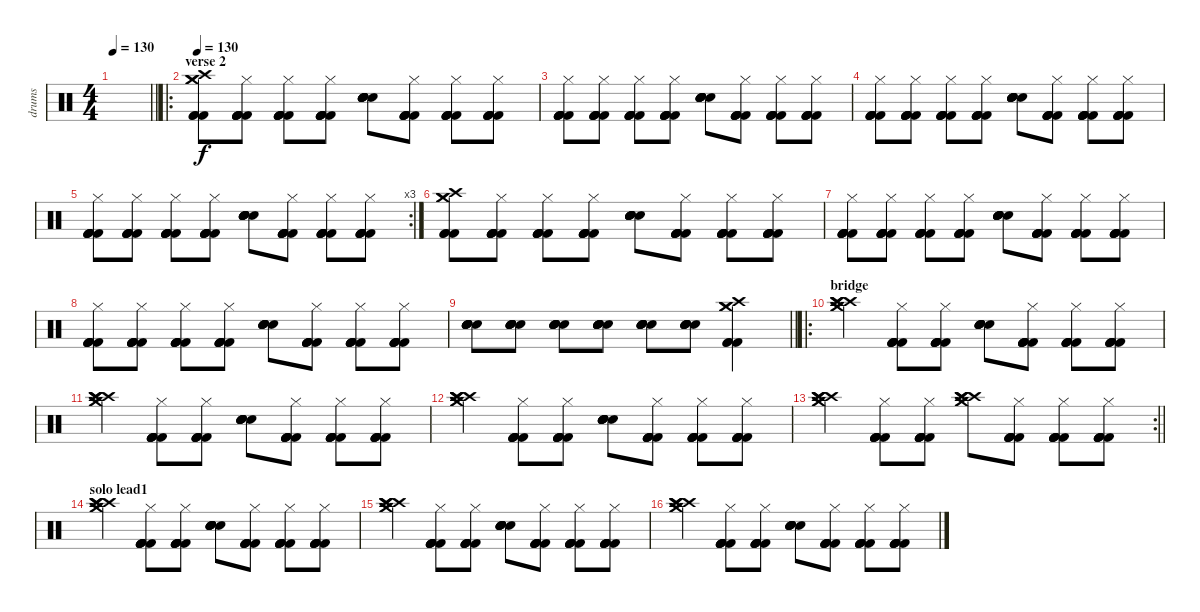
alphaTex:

\track ("drums" "drums") {instrument percussion}
\staff {score}
\articulation defaults
\ts (4 4)
\tempo 130
\clef neutral
\barLineRight lightlight
\ks c
|
\ro
\section ("" "verse 2")
\tempo 130
("Crash medium (hit)" "Crash medium (hit)" "Crash high (hit)" "Kick (hit) 2" "Kick (hit) 2" "Kick (hit) 2").8 ("Kick (hit) 2" "Kick (hit) 2" "Kick (hit) 2" "Hi-Hat (closed)" "Kick (hit) 2" "Kick (hit) 2").8 ("Kick (hit) 2" "Kick (hit) 2" "Kick (hit) 2" "Hi-Hat (closed)" "Kick (hit) 2" "Kick (hit) 2").8 ("Kick (hit) 2" "Kick (hit) 2" "Kick (hit) 2" "Hi-Hat (closed)" "Kick (hit) 2" "Kick (hit) 2").8 ("Snare (hit) 2" "Snare (hit) 2" "Snare (hit) 2" "Electric Snare (hit)" "Electric Snare (hit)" "Electric Snare (hit)").8 ("Kick (hit) 2" "Kick (hit) 2" "Kick (hit) 2" "Hi-Hat (closed)" "Kick (hit) 2" "Kick (hit) 2").8 ("Kick (hit) 2" "Kick (hit) 2" "Kick (hit) 2" "Hi-Hat (closed)" "Kick (hit) 2" "Kick (hit) 2").8 ("Kick (hit) 2" "Kick (hit) 2" "Kick (hit) 2" "Hi-Hat (closed)" "Kick (hit) 2" "Kick (hit) 2").8 |
("Kick (hit) 2" "Kick (hit) 2" "Kick (hit) 2" "Hi-Hat (closed)" "Kick (hit) 2" "Kick (hit) 2").8 ("Kick (hit) 2" "Kick (hit) 2" "Kick (hit) 2" "Hi-Hat (closed)" "Kick (hit) 2" "Kick (hit) 2").8 ("Kick (hit) 2" "Kick (hit) 2" "Kick (hit) 2" "Hi-Hat (closed)" "Kick (hit) 2" "Kick (hit) 2").8 ("Kick (hit) 2" "Kick (hit) 2" "Kick (hit) 2" "Hi-Hat (closed)" "Kick (hit) 2" "Kick (hit) 2").8 ("Snare (hit) 2" "Snare (hit) 2" "Snare (hit) 2" "Electric Snare (hit)" "Electric Snare (hit)" "Electric Snare (hit)").8 ("Kick (hit) 2" "Kick (hit) 2" "Kick (hit) 2" "Hi-Hat (closed)" "Kick (hit) 2" "Kick (hit) 2").8 ("Kick (hit) 2" "Kick (hit) 2" "Kick (hit) 2" "Hi-Hat (closed)" "Kick (hit) 2" "Kick (hit) 2").8 ("Kick (hit) 2" "Kick (hit) 2" "Kick (hit) 2" "Hi-Hat (closed)" "Kick (hit) 2" "Kick (hit) 2").8 |
("Kick (hit) 2" "Kick (hit) 2" "Kick (hit) 2" "Hi-Hat (closed)" "Kick (hit) 2" "Kick (hit) 2").8 ("Kick (hit) 2" "Kick (hit) 2" "Kick (hit) 2" "Hi-Hat (closed)" "Kick (hit) 2" "Kick (hit) 2").8 ("Kick (hit) 2" "Kick (hit) 2" "Kick (hit) 2" "Hi-Hat (closed)" "Kick (hit) 2" "Kick (hit) 2").8 ("Kick (hit) 2" "Kick (hit) 2" "Kick (hit) 2" "Hi-Hat (closed)" "Kick (hit) 2" "Kick (hit) 2").8 ("Snare (hit) 2" "Snare (hit) 2" "Snare (hit) 2" "Electric Snare (hit)" "Electric Snare (hit)" "Electric Snare (hit)").8 ("Kick (hit) 2" "Kick (hit) 2" "Kick (hit) 2" "Hi-Hat (closed)" "Kick (hit) 2" "Kick (hit) 2").8 ("Kick (hit) 2" "Kick (hit) 2" "Kick (hit) 2" "Hi-Hat (closed)" "Kick (hit) 2" "Kick (hit) 2").8 ("Kick (hit) 2" "Kick (hit) 2" "Kick (hit) 2" "Hi-Hat (closed)" "Kick (hit) 2" "Kick (hit) 2").8 |
\rc 3
("Kick (hit) 2" "Kick (hit) 2" "Kick (hit) 2" "Hi-Hat (closed)" "Kick (hit) 2" "Kick (hit) 2").8 ("Kick (hit) 2" "Kick (hit) 2" "Kick (hit) 2" "Hi-Hat (closed)" "Kick (hit) 2" "Kick (hit) 2").8 ("Kick (hit) 2" "Kick (hit) 2" "Kick (hit) 2" "Hi-Hat (closed)" "Kick (hit) 2" "Kick (hit) 2").8 ("Kick (hit) 2" "Kick (hit) 2" "Kick (hit) 2" "Hi-Hat (closed)" "Kick (hit) 2" "Kick (hit) 2").8 ("Snare (hit) 2" "Snare (hit) 2" "Snare (hit) 2" "Electric Snare (hit)" "Electric Snare (hit)" "Electric Snare (hit)").8 ("Kick (hit) 2" "Kick (hit) 2" "Kick (hit) 2" "Hi-Hat (closed)" "Kick (hit) 2" "Kick (hit) 2").8 ("Kick (hit) 2" "Kick (hit) 2" "Kick (hit) 2" "Hi-Hat (closed)" "Kick (hit) 2" "Kick (hit) 2").8 ("Kick (hit) 2" "Kick (hit) 2" "Kick (hit) 2" "Hi-Hat (closed)" "Kick (hit) 2" "Kick (hit) 2").8 |
("Crash medium (hit)" "Crash medium (hit)" "Crash high (hit)" "Kick (hit) 2" "Kick (hit) 2" "Kick (hit) 2").8 ("Kick (hit) 2" "Kick (hit) 2" "Kick (hit) 2" "Hi-Hat (closed)" "Kick (hit) 2" "Kick (hit) 2").8 ("Kick (hit) 2" "Kick (hit) 2" "Kick (hit) 2" "Hi-Hat (closed)" "Kick (hit) 2" "Kick (hit) 2").8 ("Kick (hit) 2" "Kick (hit) 2" "Kick (hit) 2" "Hi-Hat (closed)" "Kick (hit) 2" "Kick (hit) 2").8 ("Snare (hit) 2" "Snare (hit) 2" "Snare (hit) 2" "Electric Snare (hit)" "Electric Snare (hit)" "Electric Snare (hit)").8 ("Kick (hit) 2" "Kick (hit) 2" "Kick (hit) 2" "Hi-Hat (closed)" "Kick (hit) 2" "Kick (hit) 2").8 ("Kick (hit) 2" "Kick (hit) 2" "Kick (hit) 2" "Hi-Hat (closed)" "Kick (hit) 2" "Kick (hit) 2").8 ("Kick (hit) 2" "Kick (hit) 2" "Kick (hit) 2" "Hi-Hat (closed)" "Kick (hit) 2" "Kick (hit) 2").8 |
("Kick (hit) 2" "Kick (hit) 2" "Kick (hit) 2" "Hi-Hat (closed)" "Kick (hit) 2" "Kick (hit) 2").8 ("Kick (hit) 2" "Kick (hit) 2" "Kick (hit) 2" "Hi-Hat (closed)" "Kick (hit) 2" "Kick (hit) 2").8 ("Kick (hit) 2" "Kick (hit) 2" "Kick (hit) 2" "Hi-Hat (closed)" "Kick (hit) 2" "Kick (hit) 2").8 ("Kick (hit) 2" "Kick (hit) 2" "Kick (hit) 2" "Hi-Hat (closed)" "Kick (hit) 2" "Kick (hit) 2").8 ("Snare (hit) 2" "Snare (hit) 2" "Snare (hit) 2" "Electric Snare (hit)" "Electric Snare (hit)" "Electric Snare (hit)").8 ("Kick (hit) 2" "Kick (hit) 2" "Kick (hit) 2" "Hi-Hat (closed)" "Kick (hit) 2" "Kick (hit) 2").8 ("Kick (hit) 2" "Kick (hit) 2" "Kick (hit) 2" "Hi-Hat (closed)" "Kick (hit) 2" "Kick (hit) 2").8 ("Kick (hit) 2" "Kick (hit) 2" "Kick (hit) 2" "Hi-Hat (closed)" "Kick (hit) 2" "Kick (hit) 2").8 |
("Kick (hit) 2" "Kick (hit) 2" "Kick (hit) 2" "Hi-Hat (closed)" "Kick (hit) 2" "Kick (hit) 2").8 ("Kick (hit) 2" "Kick (hit) 2" "Kick (hit) 2" "Hi-Hat (closed)" "Kick (hit) 2" "Kick (hit) 2").8 ("Kick (hit) 2" "Kick (hit) 2" "Kick (hit) 2" "Hi-Hat (closed)" "Kick (hit) 2" "Kick (hit) 2").8 ("Kick (hit) 2" "Kick (hit) 2" "Kick (hit) 2" "Hi-Hat (closed)" "Kick (hit) 2" "Kick (hit) 2").8 ("Snare (hit) 2" "Snare (hit) 2" "Snare (hit) 2" "Electric Snare (hit)" "Electric Snare (hit)" "Electric Snare (hit)").8 ("Kick (hit) 2" "Kick (hit) 2" "Kick (hit) 2" "Hi-Hat (closed)" "Kick (hit) 2" "Kick (hit) 2").8 ("Kick (hit) 2" "Kick (hit) 2" "Kick (hit) 2" "Hi-Hat (closed)" "Kick (hit) 2" "Kick (hit) 2").8 ("Kick (hit) 2" "Kick (hit) 2" "Kick (hit) 2" "Hi-Hat (closed)" "Kick (hit) 2" "Kick (hit) 2").8 |
\barLineRight lightlight
("Snare (hit) 2" "Snare (hit) 2" "Snare (hit) 2" "Electric Snare (hit)" "Electric Snare (hit)" "Electric Snare (hit)").8 ("Snare (hit) 2" "Snare (hit) 2" "Snare (hit) 2" "Electric Snare (hit)" "Electric Snare (hit)" "Electric Snare (hit)").8 ("Snare (hit) 2" "Snare (hit) 2" "Snare (hit) 2" "Electric Snare (hit)" "Electric Snare (hit)" "Electric Snare (hit)").8 ("Snare (hit) 2" "Snare (hit) 2" "Snare (hit) 2" "Electric Snare (hit)" "Electric Snare (hit)" "Electric Snare (hit)").8 ("Snare (hit) 2" "Snare (hit) 2" "Snare (hit) 2" "Electric Snare (hit)" "Electric Snare (hit)" "Electric Snare (hit)").8 ("Snare (hit) 2" "Snare (hit) 2" "Snare (hit) 2" "Electric Snare (hit)" "Electric Snare (hit)" "Electric Snare (hit)").8 ("Crash medium (hit)" "Crash medium (hit)" "Crash high (hit)" "Kick (hit) 2" "Kick (hit) 2" "Kick (hit) 2").4 |
\ro
\section ("" "bridge")
("Crash medium (hit)" "Crash medium (hit)" "Crash high (hit)" "Crash high (hit)" "Crash high (hit)" "Crash high (hit)").4 ("Kick (hit) 2" "Kick (hit) 2" "Kick (hit) 2" "Hi-Hat (closed)" "Kick (hit) 2" "Kick (hit) 2").8 ("Kick (hit) 2" "Kick (hit) 2" "Kick (hit) 2" "Hi-Hat (closed)" "Kick (hit) 2" "Kick (hit) 2").8 ("Snare (hit) 2" "Snare (hit) 2" "Snare (hit) 2" "Electric Snare (hit)" "Electric Snare (hit)" "Electric Snare (hit)").8 ("Kick (hit) 2" "Kick (hit) 2" "Kick (hit) 2" "Hi-Hat (closed)" "Kick (hit) 2" "Kick (hit) 2").8 ("Kick (hit) 2" "Kick (hit) 2" "Kick (hit) 2" "Hi-Hat (closed)" "Kick (hit) 2" "Kick (hit) 2").8 ("Kick (hit) 2" "Kick (hit) 2" "Kick (hit) 2" "Hi-Hat (closed)" "Kick (hit) 2" "Kick (hit) 2").8 |
("Crash medium (hit)" "Crash medium (hit)" "Crash high (hit)" "Crash high (hit)" "Crash high (hit)" "Crash high (hit)").4 ("Kick (hit) 2" "Kick (hit) 2" "Kick (hit) 2" "Hi-Hat (closed)" "Kick (hit) 2" "Kick (hit) 2").8 ("Kick (hit) 2" "Kick (hit) 2" "Kick (hit) 2" "Hi-Hat (closed)" "Kick (hit) 2" "Kick (hit) 2").8 ("Snare (hit) 2" "Snare (hit) 2" "Snare (hit) 2" "Electric Snare (hit)" "Electric Snare (hit)" "Electric Snare (hit)").8 ("Kick (hit) 2" "Kick (hit) 2" "Kick (hit) 2" "Hi-Hat (closed)" "Kick (hit) 2" "Kick (hit) 2").8 ("Kick (hit) 2" "Kick (hit) 2" "Kick (hit) 2" "Hi-Hat (closed)" "Kick (hit) 2" "Kick (hit) 2").8 ("Kick (hit) 2" "Kick (hit) 2" "Kick (hit) 2" "Hi-Hat (closed)" "Kick (hit) 2" "Kick (hit) 2").8 |
("Crash medium (hit)" "Crash medium (hit)" "Crash high (hit)" "Crash high (hit)" "Crash high (hit)" "Crash high (hit)").4 ("Kick (hit) 2" "Kick (hit) 2" "Kick (hit) 2" "Hi-Hat (closed)" "Kick (hit) 2" "Kick (hit) 2").8 ("Kick (hit) 2" "Kick (hit) 2" "Kick (hit) 2" "Hi-Hat (closed)" "Kick (hit) 2" "Kick (hit) 2").8 ("Snare (hit) 2" "Snare (hit) 2" "Snare (hit) 2" "Electric Snare (hit)" "Electric Snare (hit)" "Electric Snare (hit)").8 ("Kick (hit) 2" "Kick (hit) 2" "Kick (hit) 2" "Hi-Hat (closed)" "Kick (hit) 2" "Kick (hit) 2").8 ("Kick (hit) 2" "Kick (hit) 2" "Kick (hit) 2" "Hi-Hat (closed)" "Kick (hit) 2" "Kick (hit) 2").8 ("Kick (hit) 2" "Kick (hit) 2" "Kick (hit) 2" "Hi-Hat (closed)" "Kick (hit) 2" "Kick (hit) 2").8 |
\rc 2
\barLineRight lightlight
("Crash medium (hit)" "Crash medium (hit)" "Crash high (hit)" "Crash high (hit)" "Crash high (hit)" "Crash high (hit)").4 ("Kick (hit) 2" "Kick (hit) 2" "Kick (hit) 2" "Hi-Hat (closed)" "Kick (hit) 2" "Kick (hit) 2").8 ("Kick (hit) 2" "Kick (hit) 2" "Kick (hit) 2" "Hi-Hat (closed)" "Kick (hit) 2" "Kick (hit) 2").8 ("Crash medium (hit)" "Crash medium (hit)" "Crash high (hit)" "Crash high (hit)" "Crash high (hit)" "Crash high (hit)").8 ("Kick (hit) 2" "Kick (hit) 2" "Kick (hit) 2" "Hi-Hat (closed)" "Kick (hit) 2" "Kick (hit) 2").8 ("Kick (hit) 2" "Kick (hit) 2" "Kick (hit) 2" "Hi-Hat (closed)" "Kick (hit) 2" "Kick (hit) 2").8 ("Kick (hit) 2" "Kick (hit) 2" "Kick (hit) 2" "Hi-Hat (closed)" "Kick (hit) 2" "Kick (hit) 2").8 |
\section ("" "solo lead1")
("Crash medium (hit)" "Crash medium (hit)" "Crash high (hit)" "Crash high (hit)" "Crash high (hit)" "Crash high (hit)").4 ("Kick (hit) 2" "Kick (hit) 2" "Kick (hit) 2" "Hi-Hat (closed)" "Kick (hit) 2" "Kick (hit) 2").8 ("Kick (hit) 2" "Kick (hit) 2" "Kick (hit) 2" "Hi-Hat (closed)" "Kick (hit) 2" "Kick (hit) 2").8 ("Snare (hit) 2" "Snare (hit) 2" "Snare (hit) 2" "Electric Snare (hit)" "Electric Snare (hit)" "Electric Snare (hit)").8 ("Kick (hit) 2" "Kick (hit) 2" "Kick (hit) 2" "Hi-Hat (closed)" "Kick (hit) 2" "Kick (hit) 2").8 ("Kick (hit) 2" "Kick (hit) 2" "Kick (hit) 2" "Hi-Hat (closed)" "Kick (hit) 2" "Kick (hit) 2").8 ("Kick (hit) 2" "Kick (hit) 2" "Kick (hit) 2" "Hi-Hat (closed)" "Kick (hit) 2" "Kick (hit) 2").8 |
("Crash medium (hit)" "Crash medium (hit)" "Crash high (hit)" "Crash high (hit)" "Crash high (hit)" "Crash high (hit)").4 ("Kick (hit) 2" "Kick (hit) 2" "Kick (hit) 2" "Hi-Hat (closed)" "Kick (hit) 2" "Kick (hit) 2").8 ("Kick (hit) 2" "Kick (hit) 2" "Kick (hit) 2" "Hi-Hat (closed)" "Kick (hit) 2" "Kick (hit) 2").8 ("Snare (hit) 2" "Snare (hit) 2" "Snare (hit) 2" "Electric Snare (hit)" "Electric Snare (hit)" "Electric Snare (hit)").8 ("Kick (hit) 2" "Kick (hit) 2" "Kick (hit) 2" "Hi-Hat (closed)" "Kick (hit) 2" "Kick (hit) 2").8 ("Kick (hit) 2" "Kick (hit) 2" "Kick (hit) 2" "Hi-Hat (closed)" "Kick (hit) 2" "Kick (hit) 2").8 ("Kick (hit) 2" "Kick (hit) 2" "Kick (hit) 2" "Hi-Hat (closed)" "Kick (hit) 2" "Kick (hit) 2").8 |
("Crash medium (hit)" "Crash medium (hit)" "Crash high (hit)" "Crash high (hit)" "Crash high (hit)" "Crash high (hit)").4 ("Kick (hit) 2" "Kick (hit) 2" "Kick (hit) 2" "Hi-Hat (closed)" "Kick (hit) 2" "Kick (hit) 2").8 ("Kick (hit) 2" "Kick (hit) 2" "Kick (hit) 2" "Hi-Hat (closed)" "Kick (hit) 2" "Kick (hit) 2").8 ("Snare (hit) 2" "Snare (hit) 2" "Snare (hit) 2" "Electric Snare (hit)" "Electric Snare (hit)" "Electric Snare (hit)").8 ("Kick (hit) 2" "Kick (hit) 2" "Kick (hit) 2" "Hi-Hat (closed)" "Kick (hit) 2" "Kick (hit) 2").8 ("Kick (hit) 2" "Kick (hit) 2" "Kick (hit) 2" "Hi-Hat (closed)" "Kick (hit) 2" "Kick (hit) 2").8 ("Kick (hit) 2" "Kick (hit) 2" "Kick (hit) 2" "Hi-Hat (closed)" "Kick (hit) 2" "Kick (hit) 2").8
